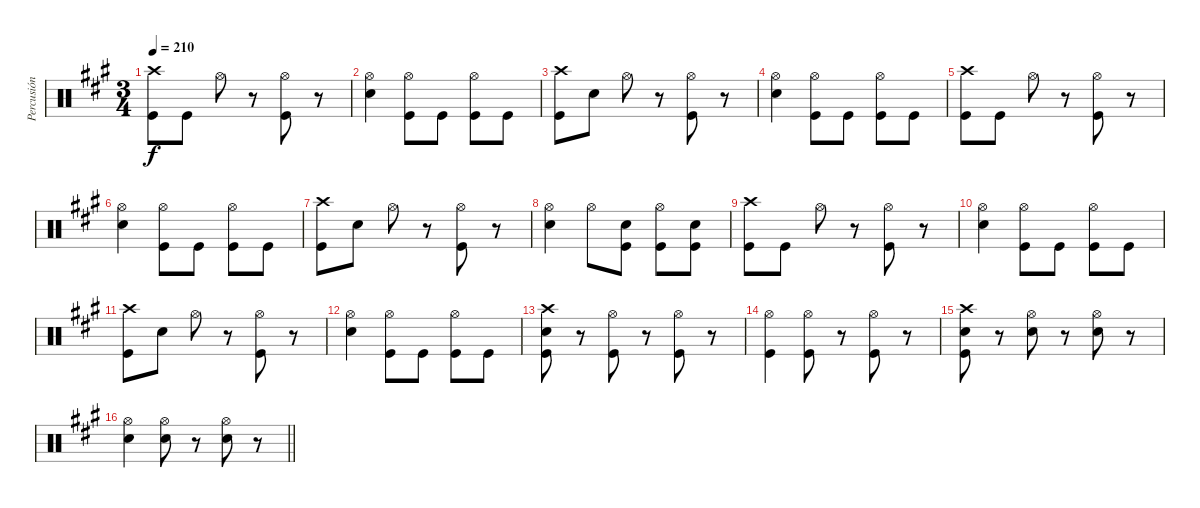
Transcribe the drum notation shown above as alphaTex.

\track ("Percusión" "Percusión") {instrument percussion}
\staff {score}
\articulation defaults
\ts (3 4)
\tempo 210
\clef neutral
\ks a
("Crash high (hit)" "Kick (hit)").8{dy f} "Kick (hit)".8 "Hi-Hat (open)".8 r.8 ("Hi-Hat (open)" "Kick (hit)").8 r.8 |
("Hi-Hat (open)" "Electric Snare (hit)").4 ("Hi-Hat (open)" "Kick (hit)").8 "Kick (hit)".8 ("Hi-Hat (open)" "Kick (hit)").8 "Kick (hit)".8 |
("Crash high (hit)" "Kick (hit)").8 "Electric Snare (hit)".8 "Hi-Hat (open)".8 r.8 ("Hi-Hat (open)" "Kick (hit)").8 r.8 |
("Hi-Hat (open)" "Electric Snare (hit)").4 ("Hi-Hat (open)" "Kick (hit)").8 "Kick (hit)".8 ("Hi-Hat (open)" "Kick (hit)").8 "Kick (hit)".8 |
("Crash high (hit)" "Kick (hit)").8 "Kick (hit)".8 "Hi-Hat (open)".8 r.8 ("Hi-Hat (open)" "Kick (hit)").8 r.8 |
("Hi-Hat (open)" "Electric Snare (hit)").4 ("Hi-Hat (open)" "Kick (hit)").8 "Kick (hit)".8 ("Hi-Hat (open)" "Kick (hit)").8 "Kick (hit)".8 |
("Crash high (hit)" "Kick (hit)").8 "Electric Snare (hit)".8 "Hi-Hat (open)".8 r.8 ("Hi-Hat (open)" "Kick (hit)").8 r.8 |
("Hi-Hat (open)" "Electric Snare (hit)").4 "Hi-Hat (open)".8 ("Electric Snare (hit)" "Kick (hit)").8 ("Hi-Hat (open)" "Kick (hit)").8 ("Electric Snare (hit)" "Kick (hit)").8 |
("Crash high (hit)" "Kick (hit)").8 "Kick (hit)".8 "Hi-Hat (open)".8 r.8 ("Hi-Hat (open)" "Kick (hit)").8 r.8 |
("Hi-Hat (open)" "Electric Snare (hit)").4 ("Hi-Hat (open)" "Kick (hit)").8 "Kick (hit)".8 ("Hi-Hat (open)" "Kick (hit)").8 "Kick (hit)".8 |
("Crash high (hit)" "Kick (hit)").8 "Electric Snare (hit)".8 "Hi-Hat (open)".8 r.8 ("Hi-Hat (open)" "Kick (hit)").8 r.8 |
("Hi-Hat (open)" "Electric Snare (hit)").4 ("Hi-Hat (open)" "Kick (hit)").8 "Kick (hit)".8 ("Hi-Hat (open)" "Kick (hit)").8 "Kick (hit)".8 |
("Crash high (hit)" "Electric Snare (hit)" "Kick (hit)").8 r.8 ("Hi-Hat (open)" "Kick (hit)").8 r.8 ("Hi-Hat (open)" "Kick (hit)").8 r.8 |
("Hi-Hat (open)" "Kick (hit)").4 ("Hi-Hat (open)" "Kick (hit)").8 r.8 ("Hi-Hat (open)" "Kick (hit)").8 r.8 |
("Crash high (hit)" "Electric Snare (hit)" "Kick (hit)").8 r.8 ("Hi-Hat (open)" "Electric Snare (hit)").8 r.8 ("Hi-Hat (open)" "Electric Snare (hit)").8 r.8 |
\barLineRight lightlight
("Hi-Hat (open)" "Electric Snare (hit)").4 ("Hi-Hat (open)" "Electric Snare (hit)").8 r.8 ("Hi-Hat (open)" "Electric Snare (hit)").8 r.8
